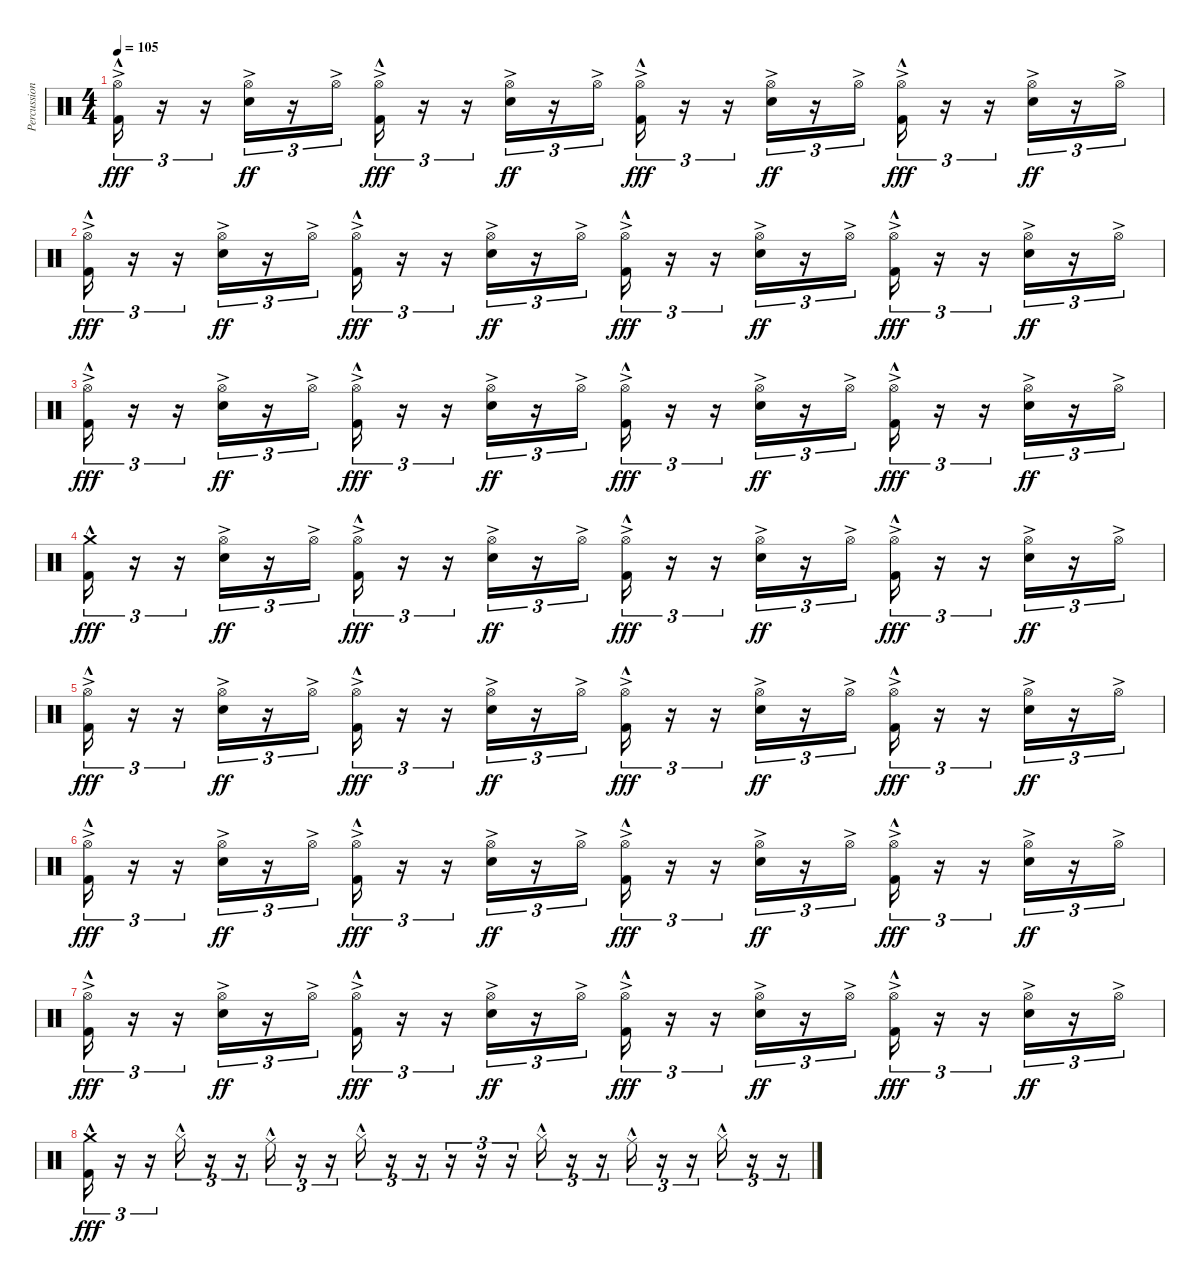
\track ("Percussion" "Percussion") {instrument percussion}
\staff {score}
\articulation defaults
\ts (4 4)
\tempo 105
\clef neutral
\ks c
("Hi-Hat (open)"{ac} "Kick (hit) 2"{hac}).16{tu (3 2) dy fff} r.16{tu (3 2)} r.16{tu (3 2)} ("Hi-Hat (open)"{ac} "Snare (hit) 2"{ac}).16{tu (3 2) dy ff} r.16{tu (3 2)} "Hi-Hat (open)"{ac}.16{tu (3 2)} ("Hi-Hat (open)"{ac} "Kick (hit) 2"{hac}).16{tu (3 2) dy fff} r.16{tu (3 2)} r.16{tu (3 2)} ("Hi-Hat (open)"{ac} "Snare (hit) 2"{ac}).16{tu (3 2) dy ff} r.16{tu (3 2)} "Hi-Hat (open)"{ac}.16{tu (3 2)} ("Hi-Hat (open)"{ac} "Kick (hit) 2"{hac}).16{tu (3 2) dy fff} r.16{tu (3 2)} r.16{tu (3 2)} ("Hi-Hat (open)"{ac} "Snare (hit) 2"{ac}).16{tu (3 2) dy ff} r.16{tu (3 2)} "Hi-Hat (open)"{ac}.16{tu (3 2)} ("Hi-Hat (open)"{ac} "Kick (hit) 2"{hac}).16{tu (3 2) dy fff} r.16{tu (3 2)} r.16{tu (3 2)} ("Hi-Hat (open)"{ac} "Snare (hit) 2"{ac}).16{tu (3 2) dy ff} r.16{tu (3 2)} "Hi-Hat (open)"{ac}.16{tu (3 2)} |
("Hi-Hat (open)"{ac} "Kick (hit) 2"{hac}).16{tu (3 2) dy fff} r.16{tu (3 2)} r.16{tu (3 2)} ("Hi-Hat (open)"{ac} "Snare (hit) 2"{ac}).16{tu (3 2) dy ff} r.16{tu (3 2)} "Hi-Hat (open)"{ac}.16{tu (3 2)} ("Hi-Hat (open)"{ac} "Kick (hit) 2"{hac}).16{tu (3 2) dy fff} r.16{tu (3 2)} r.16{tu (3 2)} ("Hi-Hat (open)"{ac} "Snare (hit) 2"{ac}).16{tu (3 2) dy ff} r.16{tu (3 2)} "Hi-Hat (open)"{ac}.16{tu (3 2)} ("Hi-Hat (open)"{ac} "Kick (hit) 2"{hac}).16{tu (3 2) dy fff} r.16{tu (3 2)} r.16{tu (3 2)} ("Hi-Hat (open)"{ac} "Snare (hit) 2"{ac}).16{tu (3 2) dy ff} r.16{tu (3 2)} "Hi-Hat (open)"{ac}.16{tu (3 2)} ("Hi-Hat (open)"{ac} "Kick (hit) 2"{hac}).16{tu (3 2) dy fff} r.16{tu (3 2)} r.16{tu (3 2)} ("Hi-Hat (open)"{ac} "Snare (hit) 2"{ac}).16{tu (3 2) dy ff} r.16{tu (3 2)} "Hi-Hat (open)"{ac}.16{tu (3 2)} |
("Hi-Hat (open)"{ac} "Kick (hit) 2"{hac}).16{tu (3 2) dy fff} r.16{tu (3 2)} r.16{tu (3 2)} ("Hi-Hat (open)"{ac} "Snare (hit) 2"{ac}).16{tu (3 2) dy ff} r.16{tu (3 2)} "Hi-Hat (open)"{ac}.16{tu (3 2)} ("Hi-Hat (open)"{ac} "Kick (hit) 2"{hac}).16{tu (3 2) dy fff} r.16{tu (3 2)} r.16{tu (3 2)} ("Hi-Hat (open)"{ac} "Snare (hit) 2"{ac}).16{tu (3 2) dy ff} r.16{tu (3 2)} "Hi-Hat (open)"{ac}.16{tu (3 2)} ("Hi-Hat (open)"{ac} "Kick (hit) 2"{hac}).16{tu (3 2) dy fff} r.16{tu (3 2)} r.16{tu (3 2)} ("Hi-Hat (open)"{ac} "Snare (hit) 2"{ac}).16{tu (3 2) dy ff} r.16{tu (3 2)} "Hi-Hat (open)"{ac}.16{tu (3 2)} ("Hi-Hat (open)"{ac} "Kick (hit) 2"{hac}).16{tu (3 2) dy fff} r.16{tu (3 2)} r.16{tu (3 2)} ("Hi-Hat (open)"{ac} "Snare (hit) 2"{ac}).16{tu (3 2) dy ff} r.16{tu (3 2)} "Hi-Hat (open)"{ac}.16{tu (3 2)} |
("Crash medium (hit)"{hac} "Kick (hit) 2"{hac}).16{tu (3 2) dy fff} r.16{tu (3 2)} r.16{tu (3 2)} ("Hi-Hat (open)"{ac} "Snare (hit) 2"{ac}).16{tu (3 2) dy ff} r.16{tu (3 2)} "Hi-Hat (open)"{ac}.16{tu (3 2)} ("Hi-Hat (open)"{ac} "Kick (hit) 2"{hac}).16{tu (3 2) dy fff} r.16{tu (3 2)} r.16{tu (3 2)} ("Hi-Hat (open)"{ac} "Snare (hit) 2"{ac}).16{tu (3 2) dy ff} r.16{tu (3 2)} "Hi-Hat (open)"{ac}.16{tu (3 2)} ("Hi-Hat (open)"{ac} "Kick (hit) 2"{hac}).16{tu (3 2) dy fff} r.16{tu (3 2)} r.16{tu (3 2)} ("Hi-Hat (open)"{ac} "Snare (hit) 2"{ac}).16{tu (3 2) dy ff} r.16{tu (3 2)} "Hi-Hat (open)"{ac}.16{tu (3 2)} ("Hi-Hat (open)"{ac} "Kick (hit) 2"{hac}).16{tu (3 2) dy fff} r.16{tu (3 2)} r.16{tu (3 2)} ("Hi-Hat (open)"{ac} "Snare (hit) 2"{ac}).16{tu (3 2) dy ff} r.16{tu (3 2)} "Hi-Hat (open)"{ac}.16{tu (3 2)} |
("Hi-Hat (open)"{ac} "Kick (hit) 2"{hac}).16{tu (3 2) dy fff} r.16{tu (3 2)} r.16{tu (3 2)} ("Hi-Hat (open)"{ac} "Snare (hit) 2"{ac}).16{tu (3 2) dy ff} r.16{tu (3 2)} "Hi-Hat (open)"{ac}.16{tu (3 2)} ("Hi-Hat (open)"{ac} "Kick (hit) 2"{hac}).16{tu (3 2) dy fff} r.16{tu (3 2)} r.16{tu (3 2)} ("Hi-Hat (open)"{ac} "Snare (hit) 2"{ac}).16{tu (3 2) dy ff} r.16{tu (3 2)} "Hi-Hat (open)"{ac}.16{tu (3 2)} ("Hi-Hat (open)"{ac} "Kick (hit) 2"{hac}).16{tu (3 2) dy fff} r.16{tu (3 2)} r.16{tu (3 2)} ("Hi-Hat (open)"{ac} "Snare (hit) 2"{ac}).16{tu (3 2) dy ff} r.16{tu (3 2)} "Hi-Hat (open)"{ac}.16{tu (3 2)} ("Hi-Hat (open)"{ac} "Kick (hit) 2"{hac}).16{tu (3 2) dy fff} r.16{tu (3 2)} r.16{tu (3 2)} ("Hi-Hat (open)"{ac} "Snare (hit) 2"{ac}).16{tu (3 2) dy ff} r.16{tu (3 2)} "Hi-Hat (open)"{ac}.16{tu (3 2)} |
("Hi-Hat (open)"{ac} "Kick (hit) 2"{hac}).16{tu (3 2) dy fff} r.16{tu (3 2)} r.16{tu (3 2)} ("Hi-Hat (open)"{ac} "Snare (hit) 2"{ac}).16{tu (3 2) dy ff} r.16{tu (3 2)} "Hi-Hat (open)"{ac}.16{tu (3 2)} ("Hi-Hat (open)"{ac} "Kick (hit) 2"{hac}).16{tu (3 2) dy fff} r.16{tu (3 2)} r.16{tu (3 2)} ("Hi-Hat (open)"{ac} "Snare (hit) 2"{ac}).16{tu (3 2) dy ff} r.16{tu (3 2)} "Hi-Hat (open)"{ac}.16{tu (3 2)} ("Hi-Hat (open)"{ac} "Kick (hit) 2"{hac}).16{tu (3 2) dy fff} r.16{tu (3 2)} r.16{tu (3 2)} ("Hi-Hat (open)"{ac} "Snare (hit) 2"{ac}).16{tu (3 2) dy ff} r.16{tu (3 2)} "Hi-Hat (open)"{ac}.16{tu (3 2)} ("Hi-Hat (open)"{ac} "Kick (hit) 2"{hac}).16{tu (3 2) dy fff} r.16{tu (3 2)} r.16{tu (3 2)} ("Hi-Hat (open)"{ac} "Snare (hit) 2"{ac}).16{tu (3 2) dy ff} r.16{tu (3 2)} "Hi-Hat (open)"{ac}.16{tu (3 2)} |
("Hi-Hat (open)"{ac} "Kick (hit) 2"{hac}).16{tu (3 2) dy fff} r.16{tu (3 2)} r.16{tu (3 2)} ("Hi-Hat (open)"{ac} "Snare (hit) 2"{ac}).16{tu (3 2) dy ff} r.16{tu (3 2)} "Hi-Hat (open)"{ac}.16{tu (3 2)} ("Hi-Hat (open)"{ac} "Kick (hit) 2"{hac}).16{tu (3 2) dy fff} r.16{tu (3 2)} r.16{tu (3 2)} ("Hi-Hat (open)"{ac} "Snare (hit) 2"{ac}).16{tu (3 2) dy ff} r.16{tu (3 2)} "Hi-Hat (open)"{ac}.16{tu (3 2)} ("Hi-Hat (open)"{ac} "Kick (hit) 2"{hac}).16{tu (3 2) dy fff} r.16{tu (3 2)} r.16{tu (3 2)} ("Hi-Hat (open)"{ac} "Snare (hit) 2"{ac}).16{tu (3 2) dy ff} r.16{tu (3 2)} "Hi-Hat (open)"{ac}.16{tu (3 2)} ("Hi-Hat (open)"{ac} "Kick (hit) 2"{hac}).16{tu (3 2) dy fff} r.16{tu (3 2)} r.16{tu (3 2)} ("Hi-Hat (open)"{ac} "Snare (hit) 2"{ac}).16{tu (3 2) dy ff} r.16{tu (3 2)} "Hi-Hat (open)"{ac}.16{tu (3 2)} |
("Crash medium (hit)"{hac} "Kick (hit) 2"{hac}).16{tu (3 2) dy fff} r.16{tu (3 2)} r.16{tu (3 2)} "Hi-Hat (closed)"{hac}.16{tu (3 2)} r.16{tu (3 2)} r.16{tu (3 2)} "Ride (middle)"{hac}.16{tu (3 2)} r.16{tu (3 2)} r.16{tu (3 2)} "Hi-Hat (closed)"{hac}.16{tu (3 2)} r.16{tu (3 2)} r.16{tu (3 2)} r.16{tu (3 2)} r.16{tu (3 2)} r.16{tu (3 2)} "Hi-Hat (closed)"{hac}.16{tu (3 2)} r.16{tu (3 2)} r.16{tu (3 2)} "Ride (middle)"{hac}.16{tu (3 2)} r.16{tu (3 2)} r.16{tu (3 2)} "Hi-Hat (closed)"{hac}.16{tu (3 2)} r.16{tu (3 2)} r.16{tu (3 2)}
